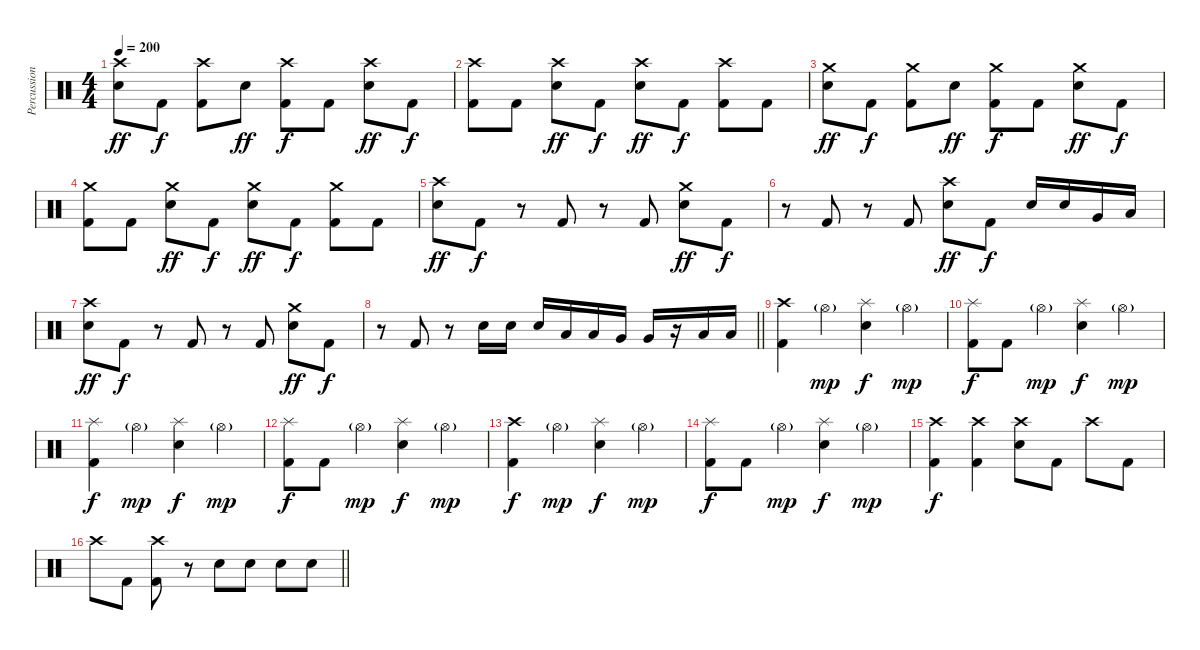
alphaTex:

\track ("Percussion" "Percussion") {instrument percussion}
\staff {score}
\articulation defaults
\ts (4 4)
\tempo 200
\clef neutral
\ks c
("Crash high (hit)" "Electric Snare (hit)").8{dy ff} "Kick (hit) 2".8{dy f} ("Crash high (hit)" "Kick (hit) 2").8 "Electric Snare (hit)".8{dy ff} ("Crash high (hit)" "Kick (hit) 2").8{dy f} "Kick (hit) 2".8 ("Crash high (hit)" "Electric Snare (hit)").8{dy ff} "Kick (hit) 2".8{dy f} |
("Crash high (hit)" "Kick (hit) 2").8 "Kick (hit) 2".8 ("Crash high (hit)" "Electric Snare (hit)").8{dy ff} "Kick (hit) 2".8{dy f} ("Crash high (hit)" "Electric Snare (hit)").8{dy ff} "Kick (hit) 2".8{dy f} ("Crash high (hit)" "Kick (hit) 2").8 "Kick (hit) 2".8 |
("Crash medium (hit)" "Electric Snare (hit)").8{dy ff} "Kick (hit) 2".8{dy f} ("Crash medium (hit)" "Kick (hit) 2").8 "Electric Snare (hit)".8{dy ff} ("Crash medium (hit)" "Kick (hit) 2").8{dy f} "Kick (hit) 2".8 ("Crash medium (hit)" "Electric Snare (hit)").8{dy ff} "Kick (hit) 2".8{dy f} |
("Crash medium (hit)" "Kick (hit) 2").8 "Kick (hit) 2".8 ("Crash medium (hit)" "Electric Snare (hit)").8{dy ff} "Kick (hit) 2".8{dy f} ("Crash medium (hit)" "Electric Snare (hit)").8{dy ff} "Kick (hit) 2".8{dy f} ("Crash medium (hit)" "Kick (hit) 2").8 "Kick (hit) 2".8 |
("Crash high (hit)" "Electric Snare (hit)").8{dy ff} "Kick (hit) 2".8{dy f} r.8 "Kick (hit) 2".8 r.8 "Kick (hit) 2".8 ("Crash medium (hit)" "Electric Snare (hit)").8{dy ff} "Kick (hit) 2".8{dy f} |
r.8 "Kick (hit) 2".8 r.8 "Kick (hit) 2".8 ("Crash high (hit)" "Electric Snare (hit)").8{dy ff} "Kick (hit) 2".8{dy f} "Electric Snare (hit)".16 "Electric Snare (hit)".16 "Very Low Tom (hit)".16 "Low Tom (hit)".16 |
("Crash high (hit)" "Electric Snare (hit)").8{dy ff} "Kick (hit) 2".8{dy f} r.8 "Kick (hit) 2".8 r.8 "Kick (hit) 2".8 ("Crash medium (hit)" "Electric Snare (hit)").8{dy ff} "Kick (hit) 2".8{dy f} |
\barLineRight lightlight
r.8 "Kick (hit) 2".8 r.8 "Electric Snare (hit)".16 "Electric Snare (hit)".16 "Electric Snare (hit)".16 "Low Tom (hit)".16 "Low Tom (hit)".16 "Very Low Tom (hit)".16 "Very Low Tom (hit)".16 r.16 "Low Floor Tom (hit)".16 "Low Floor Tom (hit)".16 |
\section ("" "")
("Crash high (hit)" "Kick (hit) 2").4 "Hi-Hat (open)"{g}.4{dy mp} ("Splash (hit)" "Electric Snare (hit)").4{dy f} "Hi-Hat (open)"{g}.4{dy mp} |
("Splash (hit)" "Kick (hit) 2").8{dy f} "Kick (hit) 2".8 "Hi-Hat (open)"{g}.4{dy mp} ("Splash (hit)" "Electric Snare (hit)").4{dy f} "Hi-Hat (open)"{g}.4{dy mp} |
("Splash (hit)" "Kick (hit) 2").4{dy f} "Hi-Hat (open)"{g}.4{dy mp} ("Splash (hit)" "Electric Snare (hit)").4{dy f} "Hi-Hat (open)"{g}.4{dy mp} |
("Splash (hit)" "Kick (hit) 2").8{dy f} "Kick (hit) 2".8 "Hi-Hat (open)"{g}.4{dy mp} ("Splash (hit)" "Electric Snare (hit)").4{dy f} "Hi-Hat (open)"{g}.4{dy mp} |
("Crash high (hit)" "Kick (hit) 2").4{dy f} "Hi-Hat (open)"{g}.4{dy mp} ("Splash (hit)" "Electric Snare (hit)").4{dy f} "Hi-Hat (open)"{g}.4{dy mp} |
("Splash (hit)" "Kick (hit) 2").8{dy f} "Kick (hit) 2".8 "Hi-Hat (open)"{g}.4{dy mp} ("Splash (hit)" "Electric Snare (hit)").4{dy f} "Hi-Hat (open)"{g}.4{dy mp} |
("Crash high (hit)" "Kick (hit) 2").4{dy f} ("Crash high (hit)" "Kick (hit) 2").4 ("Crash high (hit)" "Electric Snare (hit)").8 "Kick (hit) 2".8 "Crash high (hit)".8 "Kick (hit) 2".8 |
\barLineRight lightlight "Crash high (hit)".8 "Kick (hit) 2".8
("Crash high (hit)" "Kick (hit) 2").8 r.8 "Electric Snare (hit)".8 "Electric Snare (hit)".8 "Electric Snare (hit)".8 "Electric Snare (hit)".8
